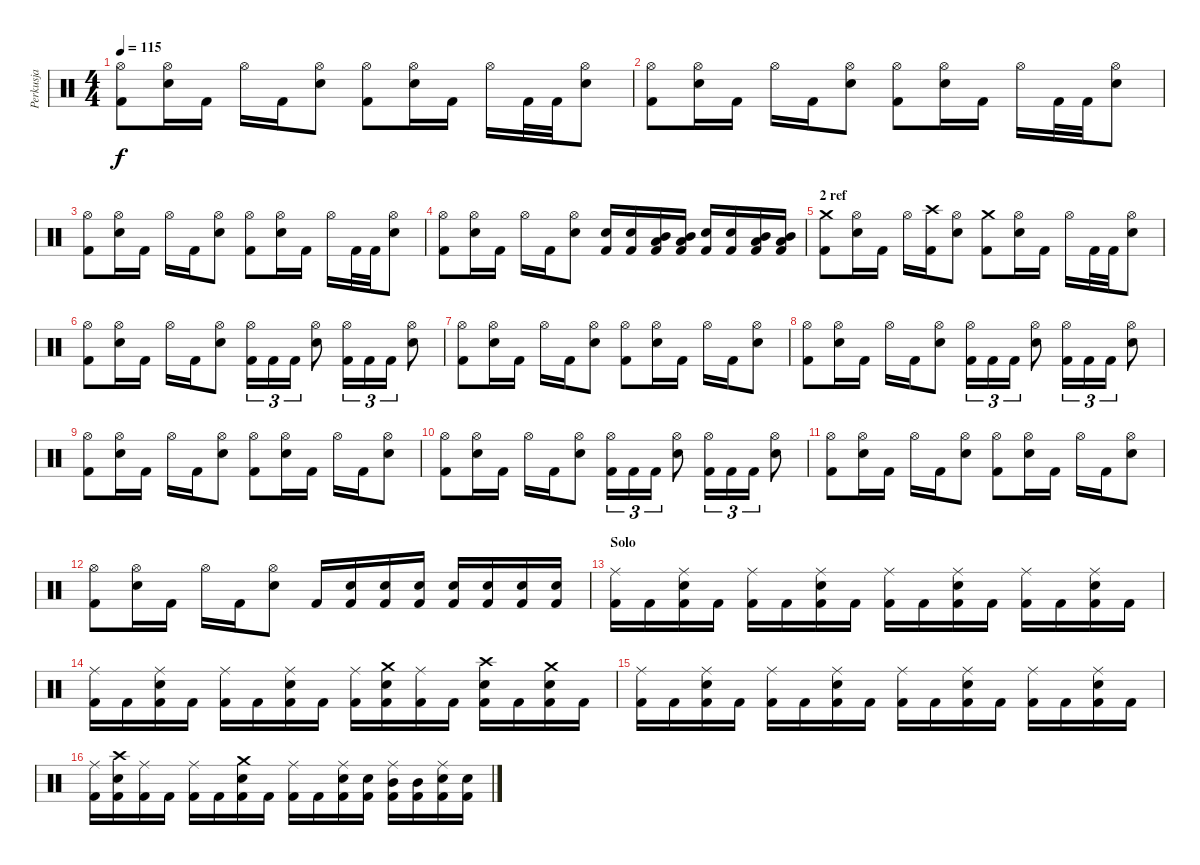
\track ("Perkusja" "Perkusja") {instrument percussion}
\staff {score}
\articulation defaults
\ts (4 4)
\tempo 115
\clef neutral
\ks c
("Hi-Hat (open)" "Kick (hit) 2").8{dy f} ("Hi-Hat (open)" "Snare (hit) 2").16 "Kick (hit) 2".16 "Hi-Hat (open)".16 "Kick (hit) 2".16 ("Hi-Hat (open)" "Snare (hit) 2").8 ("Hi-Hat (open)" "Kick (hit) 2").8 ("Hi-Hat (open)" "Snare (hit) 2").16 "Kick (hit) 2".16 "Hi-Hat (open)".16 "Kick (hit) 2".32 "Kick (hit) 2".32 ("Hi-Hat (open)" "Snare (hit) 2").8 |
("Hi-Hat (open)" "Kick (hit) 2").8 ("Hi-Hat (open)" "Snare (hit) 2").16 "Kick (hit) 2".16 "Hi-Hat (open)".16 "Kick (hit) 2".16 ("Hi-Hat (open)" "Snare (hit) 2").8 ("Hi-Hat (open)" "Kick (hit) 2").8 ("Hi-Hat (open)" "Snare (hit) 2").16 "Kick (hit) 2".16 "Hi-Hat (open)".16 "Kick (hit) 2".32 "Kick (hit) 2".32 ("Hi-Hat (open)" "Snare (hit) 2").8 |
("Hi-Hat (open)" "Kick (hit) 2").8 ("Hi-Hat (open)" "Snare (hit) 2").16 "Kick (hit) 2".16 "Hi-Hat (open)".16 "Kick (hit) 2".16 ("Hi-Hat (open)" "Snare (hit) 2").8 ("Hi-Hat (open)" "Kick (hit) 2").8 ("Hi-Hat (open)" "Snare (hit) 2").16 "Kick (hit) 2".16 "Hi-Hat (open)".16 "Kick (hit) 2".32 "Kick (hit) 2".32 ("Hi-Hat (open)" "Snare (hit) 2").8 |
("Hi-Hat (open)" "Kick (hit) 2").8 ("Hi-Hat (open)" "Snare (hit) 2").16 "Kick (hit) 2".16 "Hi-Hat (open)".16 "Kick (hit) 2".16 ("Hi-Hat (open)" "Snare (hit) 2").8 ("Snare (hit) 2" "Kick (hit) 2").16 ("Snare (hit) 2" "Kick (hit) 2").16 ("Low Tom (hit)" "Mid Tom (hit)" "Kick (hit) 2").16 ("Low Tom (hit)" "Mid Tom (hit)" "Kick (hit) 2").16 ("Snare (hit) 2" "Kick (hit) 2").16 ("Snare (hit) 2" "Kick (hit) 2").16 ("Low Tom (hit)" "Mid Tom (hit)" "Kick (hit) 2").16 ("Low Tom (hit)" "Mid Tom (hit)" "Kick (hit) 2").16 |
\section ("" "2 ref")
("Crash medium (hit)" "Kick (hit) 2").8 ("Hi-Hat (open)" "Snare (hit) 2").16 "Kick (hit) 2".16 "Hi-Hat (open)".16 ("Crash high (hit)" "Kick (hit) 2").16 ("Hi-Hat (open)" "Snare (hit) 2").8 ("Crash medium (hit)" "Kick (hit) 2").8 ("Hi-Hat (open)" "Snare (hit) 2").16 "Kick (hit) 2".16 "Hi-Hat (open)".16 "Kick (hit) 2".32 "Kick (hit) 2".32 ("Hi-Hat (open)" "Snare (hit) 2").8 |
("Hi-Hat (open)" "Kick (hit) 2").8 ("Hi-Hat (open)" "Snare (hit) 2").16 "Kick (hit) 2".16 "Hi-Hat (open)".16 "Kick (hit) 2".16 ("Hi-Hat (open)" "Snare (hit) 2").8 ("Hi-Hat (open)" "Kick (hit) 2").16{tu (3 2)} "Kick (hit) 2".16{tu (3 2)} "Kick (hit) 2".16{tu (3 2)} ("Hi-Hat (open)" "Snare (hit) 2").8 ("Hi-Hat (open)" "Kick (hit) 2").16{tu (3 2)} "Kick (hit) 2".16{tu (3 2)} "Kick (hit) 2".16{tu (3 2)} ("Hi-Hat (open)" "Snare (hit) 2").8 |
("Hi-Hat (open)" "Kick (hit) 2").8 ("Hi-Hat (open)" "Snare (hit) 2").16 "Kick (hit) 2".16 "Hi-Hat (open)".16 "Kick (hit) 2".16 ("Hi-Hat (open)" "Snare (hit) 2").8 ("Hi-Hat (open)" "Kick (hit) 2").8 ("Hi-Hat (open)" "Snare (hit) 2").16 "Kick (hit) 2".16 "Hi-Hat (open)".16 "Kick (hit) 2".16 ("Hi-Hat (open)" "Snare (hit) 2").8 |
("Hi-Hat (open)" "Kick (hit) 2").8 ("Hi-Hat (open)" "Snare (hit) 2").16 "Kick (hit) 2".16 "Hi-Hat (open)".16 "Kick (hit) 2".16 ("Hi-Hat (open)" "Snare (hit) 2").8 ("Hi-Hat (open)" "Kick (hit) 2").16{tu (3 2)} "Kick (hit) 2".16{tu (3 2)} "Kick (hit) 2".16{tu (3 2)} ("Hi-Hat (open)" "Snare (hit) 2").8 ("Hi-Hat (open)" "Kick (hit) 2").16{tu (3 2)} "Kick (hit) 2".16{tu (3 2)} "Kick (hit) 2".16{tu (3 2)} ("Hi-Hat (open)" "Snare (hit) 2").8 |
("Hi-Hat (open)" "Kick (hit) 2").8 ("Hi-Hat (open)" "Snare (hit) 2").16 "Kick (hit) 2".16 "Hi-Hat (open)".16 "Kick (hit) 2".16 ("Hi-Hat (open)" "Snare (hit) 2").8 ("Hi-Hat (open)" "Kick (hit) 2").8 ("Hi-Hat (open)" "Snare (hit) 2").16 "Kick (hit) 2".16 "Hi-Hat (open)".16 "Kick (hit) 2".16 ("Hi-Hat (open)" "Snare (hit) 2").8 |
("Hi-Hat (open)" "Kick (hit) 2").8 ("Hi-Hat (open)" "Snare (hit) 2").16 "Kick (hit) 2".16 "Hi-Hat (open)".16 "Kick (hit) 2".16 ("Hi-Hat (open)" "Snare (hit) 2").8 ("Hi-Hat (open)" "Kick (hit) 2").16{tu (3 2)} "Kick (hit) 2".16{tu (3 2)} "Kick (hit) 2".16{tu (3 2)} ("Hi-Hat (open)" "Snare (hit) 2").8 ("Hi-Hat (open)" "Kick (hit) 2").16{tu (3 2)} "Kick (hit) 2".16{tu (3 2)} "Kick (hit) 2".16{tu (3 2)} ("Hi-Hat (open)" "Snare (hit) 2").8 |
("Hi-Hat (open)" "Kick (hit) 2").8 ("Hi-Hat (open)" "Snare (hit) 2").16 "Kick (hit) 2".16 "Hi-Hat (open)".16 "Kick (hit) 2".16 ("Hi-Hat (open)" "Snare (hit) 2").8 ("Hi-Hat (open)" "Kick (hit) 2").8 ("Hi-Hat (open)" "Snare (hit) 2").16 "Kick (hit) 2".16 "Hi-Hat (open)".16 "Kick (hit) 2".16 ("Hi-Hat (open)" "Snare (hit) 2").8 |
("Hi-Hat (open)" "Kick (hit) 2").8 ("Hi-Hat (open)" "Snare (hit) 2").16 "Kick (hit) 2".16 "Hi-Hat (open)".16 "Kick (hit) 2".16 ("Hi-Hat (open)" "Snare (hit) 2").8 "Kick (hit) 2".16 ("Snare (hit) 2" "Kick (hit) 2").16 ("Snare (hit) 2" "Kick (hit) 2").16 ("Snare (hit) 2" "Kick (hit) 2").16 ("Snare (hit) 2" "Kick (hit) 2").16 ("Snare (hit) 2" "Kick (hit) 2").16 ("Snare (hit) 2" "Kick (hit) 2").16 ("Snare (hit) 2" "Kick (hit) 2").16 |
\section ("" "Solo")
("Ride (middle)" "Kick (hit) 2").16 "Kick (hit) 2".16 ("Ride (middle)" "Snare (hit) 2" "Kick (hit) 2").16 "Kick (hit) 2".16 ("Ride (middle)" "Kick (hit) 2").16 "Kick (hit) 2".16 ("Ride (middle)" "Snare (hit) 2" "Kick (hit) 2").16 "Kick (hit) 2".16 ("Ride (middle)" "Kick (hit) 2").16 "Kick (hit) 2".16 ("Ride (middle)" "Snare (hit) 2" "Kick (hit) 2").16 "Kick (hit) 2".16 ("Ride (middle)" "Kick (hit) 2").16 "Kick (hit) 2".16 ("Ride (middle)" "Snare (hit) 2" "Kick (hit) 2").16 "Kick (hit) 2".16 |
("Ride (middle)" "Kick (hit) 2").16 "Kick (hit) 2".16 ("Ride (middle)" "Snare (hit) 2" "Kick (hit) 2").16 "Kick (hit) 2".16 ("Ride (middle)" "Kick (hit) 2").16 "Kick (hit) 2".16 ("Ride (middle)" "Snare (hit) 2" "Kick (hit) 2").16 "Kick (hit) 2".16 ("Ride (middle)" "Kick (hit) 2").16 ("Crash medium (hit)" "Snare (hit) 2" "Kick (hit) 2").16 ("Ride (middle)" "Kick (hit) 2").16 "Kick (hit) 2".16 ("Crash high (hit)" "Snare (hit) 2" "Kick (hit) 2").16 "Kick (hit) 2".16 ("Crash medium (hit)" "Snare (hit) 2" "Kick (hit) 2").16 "Kick (hit) 2".16 |
("Ride (middle)" "Kick (hit) 2").16 "Kick (hit) 2".16 ("Ride (middle)" "Snare (hit) 2" "Kick (hit) 2").16 "Kick (hit) 2".16 ("Ride (middle)" "Kick (hit) 2").16 "Kick (hit) 2".16 ("Ride (middle)" "Snare (hit) 2" "Kick (hit) 2").16 "Kick (hit) 2".16 ("Ride (middle)" "Kick (hit) 2").16 "Kick (hit) 2".16 ("Ride (middle)" "Snare (hit) 2" "Kick (hit) 2").16 "Kick (hit) 2".16 ("Ride (middle)" "Kick (hit) 2").16 "Kick (hit) 2".16 ("Ride (middle)" "Snare (hit) 2" "Kick (hit) 2").16 "Kick (hit) 2".16 |
("Ride (middle)" "Kick (hit) 2").16 ("Crash high (hit)" "Snare (hit) 2" "Kick (hit) 2").16 ("Ride (middle)" "Kick (hit) 2").16 "Kick (hit) 2".16 ("Ride (middle)" "Kick (hit) 2").16 "Kick (hit) 2".16 ("Crash medium (hit)" "Snare (hit) 2" "Kick (hit) 2").16 "Kick (hit) 2".16 ("Ride (middle)" "Kick (hit) 2").16 "Kick (hit) 2".16 ("Ride (middle)" "Snare (hit) 2" "Kick (hit) 2").16 ("Snare (hit) 2" "Kick (hit) 2").16 ("Ride (middle)" "Mid Tom (hit)" "Kick (hit) 2").16 ("Mid Tom (hit)" "Kick (hit) 2").16 ("Ride (middle)" "Snare (hit) 2" "Kick (hit) 2").16 ("Snare (hit) 2" "Kick (hit) 2").16
